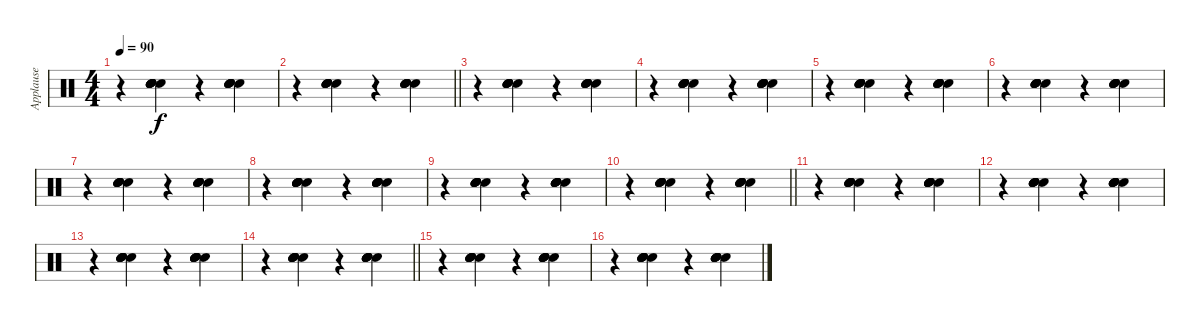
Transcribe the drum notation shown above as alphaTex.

\track ("Applause" "Applause") {instrument percussion}
\staff {score}
\articulation defaults
\ts (4 4)
\tempo 90
\clef neutral
\ks c
r.4{dy f} ("Hand Clap (hit)" "Hand Clap (hit)" "Hand Clap (hit)" "Hand Clap (hit)" "Hand Clap (hit)" "Hand Clap (hit)").4 r.4 ("Hand Clap (hit)" "Hand Clap (hit)" "Hand Clap (hit)" "Hand Clap (hit)" "Hand Clap (hit)" "Hand Clap (hit)").4 |
\barLineRight lightlight
r.4 ("Hand Clap (hit)" "Hand Clap (hit)" "Hand Clap (hit)" "Hand Clap (hit)" "Hand Clap (hit)" "Hand Clap (hit)").4 r.4 ("Hand Clap (hit)" "Hand Clap (hit)" "Hand Clap (hit)" "Hand Clap (hit)" "Hand Clap (hit)" "Hand Clap (hit)").4 |
r.4 ("Hand Clap (hit)" "Hand Clap (hit)" "Hand Clap (hit)" "Hand Clap (hit)" "Hand Clap (hit)" "Hand Clap (hit)").4 r.4 ("Hand Clap (hit)" "Hand Clap (hit)" "Hand Clap (hit)" "Hand Clap (hit)" "Hand Clap (hit)" "Hand Clap (hit)").4 |
r.4 ("Hand Clap (hit)" "Hand Clap (hit)" "Hand Clap (hit)" "Hand Clap (hit)" "Hand Clap (hit)" "Hand Clap (hit)").4 r.4 ("Hand Clap (hit)" "Hand Clap (hit)" "Hand Clap (hit)" "Hand Clap (hit)" "Hand Clap (hit)" "Hand Clap (hit)").4 |
r.4 ("Hand Clap (hit)" "Hand Clap (hit)" "Hand Clap (hit)" "Hand Clap (hit)" "Hand Clap (hit)" "Hand Clap (hit)").4 r.4 ("Hand Clap (hit)" "Hand Clap (hit)" "Hand Clap (hit)" "Hand Clap (hit)" "Hand Clap (hit)" "Hand Clap (hit)").4 |
r.4 ("Hand Clap (hit)" "Hand Clap (hit)" "Hand Clap (hit)" "Hand Clap (hit)" "Hand Clap (hit)" "Hand Clap (hit)").4 r.4 ("Hand Clap (hit)" "Hand Clap (hit)" "Hand Clap (hit)" "Hand Clap (hit)" "Hand Clap (hit)" "Hand Clap (hit)").4 |
r.4 ("Hand Clap (hit)" "Hand Clap (hit)" "Hand Clap (hit)" "Hand Clap (hit)" "Hand Clap (hit)" "Hand Clap (hit)").4 r.4 ("Hand Clap (hit)" "Hand Clap (hit)" "Hand Clap (hit)" "Hand Clap (hit)" "Hand Clap (hit)" "Hand Clap (hit)").4 |
r.4 ("Hand Clap (hit)" "Hand Clap (hit)" "Hand Clap (hit)" "Hand Clap (hit)" "Hand Clap (hit)" "Hand Clap (hit)").4 r.4 ("Hand Clap (hit)" "Hand Clap (hit)" "Hand Clap (hit)" "Hand Clap (hit)" "Hand Clap (hit)" "Hand Clap (hit)").4 |
r.4 ("Hand Clap (hit)" "Hand Clap (hit)" "Hand Clap (hit)" "Hand Clap (hit)" "Hand Clap (hit)" "Hand Clap (hit)").4 r.4 ("Hand Clap (hit)" "Hand Clap (hit)" "Hand Clap (hit)" "Hand Clap (hit)" "Hand Clap (hit)" "Hand Clap (hit)").4 |
\barLineRight lightlight
r.4 ("Hand Clap (hit)" "Hand Clap (hit)" "Hand Clap (hit)" "Hand Clap (hit)" "Hand Clap (hit)" "Hand Clap (hit)").4 r.4 ("Hand Clap (hit)" "Hand Clap (hit)" "Hand Clap (hit)" "Hand Clap (hit)" "Hand Clap (hit)" "Hand Clap (hit)").4 |
r.4 ("Hand Clap (hit)" "Hand Clap (hit)" "Hand Clap (hit)" "Hand Clap (hit)" "Hand Clap (hit)" "Hand Clap (hit)").4 r.4 ("Hand Clap (hit)" "Hand Clap (hit)" "Hand Clap (hit)" "Hand Clap (hit)" "Hand Clap (hit)" "Hand Clap (hit)").4 |
r.4 ("Hand Clap (hit)" "Hand Clap (hit)" "Hand Clap (hit)" "Hand Clap (hit)" "Hand Clap (hit)" "Hand Clap (hit)").4 r.4 ("Hand Clap (hit)" "Hand Clap (hit)" "Hand Clap (hit)" "Hand Clap (hit)" "Hand Clap (hit)" "Hand Clap (hit)").4 |
r.4 ("Hand Clap (hit)" "Hand Clap (hit)" "Hand Clap (hit)" "Hand Clap (hit)" "Hand Clap (hit)" "Hand Clap (hit)").4 r.4 ("Hand Clap (hit)" "Hand Clap (hit)" "Hand Clap (hit)" "Hand Clap (hit)" "Hand Clap (hit)" "Hand Clap (hit)").4 |
\barLineRight lightlight
r.4 ("Hand Clap (hit)" "Hand Clap (hit)" "Hand Clap (hit)" "Hand Clap (hit)" "Hand Clap (hit)" "Hand Clap (hit)").4 r.4 ("Hand Clap (hit)" "Hand Clap (hit)" "Hand Clap (hit)" "Hand Clap (hit)" "Hand Clap (hit)" "Hand Clap (hit)").4 |
r.4 ("Hand Clap (hit)" "Hand Clap (hit)" "Hand Clap (hit)" "Hand Clap (hit)" "Hand Clap (hit)" "Hand Clap (hit)").4 r.4 ("Hand Clap (hit)" "Hand Clap (hit)" "Hand Clap (hit)" "Hand Clap (hit)" "Hand Clap (hit)" "Hand Clap (hit)").4 |
r.4 ("Hand Clap (hit)" "Hand Clap (hit)" "Hand Clap (hit)" "Hand Clap (hit)" "Hand Clap (hit)" "Hand Clap (hit)").4 r.4 ("Hand Clap (hit)" "Hand Clap (hit)" "Hand Clap (hit)" "Hand Clap (hit)" "Hand Clap (hit)" "Hand Clap (hit)").4
